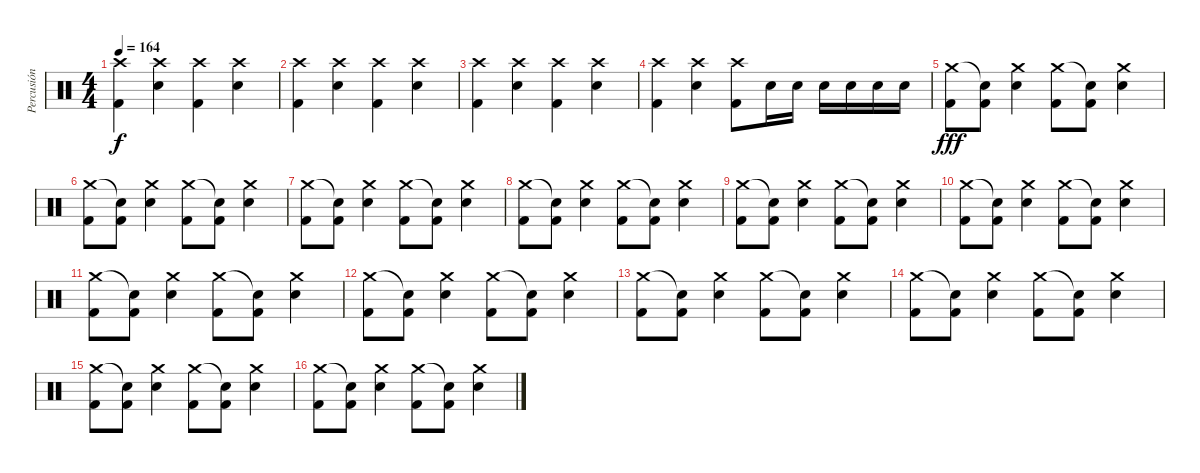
\track ("Percusión" "Percusión") {instrument percussion}
\staff {score}
\articulation defaults
\ts (4 4)
\tempo 164
\clef neutral
\ks c
("Crash high (hit)" "Kick (hit) 2").4{dy f} ("Crash high (hit)" "Snare (hit) 2").4 ("Crash high (hit)" "Kick (hit) 2").4 ("Crash high (hit)" "Snare (hit) 2").4 |
("Crash high (hit)" "Kick (hit) 2").4 ("Crash high (hit)" "Snare (hit) 2").4 ("Crash high (hit)" "Kick (hit) 2").4 ("Crash high (hit)" "Snare (hit) 2").4 |
("Crash high (hit)" "Kick (hit) 2").4 ("Crash high (hit)" "Snare (hit) 2").4 ("Crash high (hit)" "Kick (hit) 2").4 ("Crash high (hit)" "Snare (hit) 2").4 |
("Crash high (hit)" "Kick (hit) 2").4 ("Crash high (hit)" "Snare (hit) 2").4 ("Crash high (hit)" "Kick (hit) 2").8 "Electric Snare (hit)".16 "Electric Snare (hit)".16 "Electric Snare (hit)".16 "Electric Snare (hit)".16 "Electric Snare (hit)".16 "Electric Snare (hit)".16 |
("Crash medium (hit)" "Kick (hit) 2").8{dy fff} ("Snare (hit)"{t} "Kick (hit) 2").8 ("Crash medium (hit)" "Snare (hit) 2").4 ("Crash medium (hit)" "Kick (hit) 2").8 ("Snare (hit)"{t} "Kick (hit) 2").8 ("Crash medium (hit)" "Snare (hit) 2").4 |
("Crash medium (hit)" "Kick (hit) 2").8 ("Snare (hit)"{t} "Kick (hit) 2").8 ("Crash medium (hit)" "Snare (hit) 2").4 ("Crash medium (hit)" "Kick (hit) 2").8 ("Snare (hit)"{t} "Kick (hit) 2").8 ("Crash medium (hit)" "Snare (hit) 2").4 |
("Crash medium (hit)" "Kick (hit) 2").8 ("Snare (hit)"{t} "Kick (hit) 2").8 ("Crash medium (hit)" "Snare (hit) 2").4 ("Crash medium (hit)" "Kick (hit) 2").8 ("Snare (hit)"{t} "Kick (hit) 2").8 ("Crash medium (hit)" "Snare (hit) 2").4 |
("Crash medium (hit)" "Kick (hit) 2").8 ("Snare (hit)"{t} "Kick (hit) 2").8 ("Crash medium (hit)" "Snare (hit) 2").4 ("Crash medium (hit)" "Kick (hit) 2").8 ("Snare (hit)"{t} "Kick (hit) 2").8 ("Crash medium (hit)" "Snare (hit) 2").4 |
("Crash medium (hit)" "Kick (hit) 2").8 ("Snare (hit)"{t} "Kick (hit) 2").8 ("Crash medium (hit)" "Snare (hit) 2").4 ("Crash medium (hit)" "Kick (hit) 2").8 ("Snare (hit)"{t} "Kick (hit) 2").8 ("Crash medium (hit)" "Snare (hit) 2").4 |
("Crash medium (hit)" "Kick (hit) 2").8 ("Snare (hit)"{t} "Kick (hit) 2").8 ("Crash medium (hit)" "Snare (hit) 2").4 ("Crash medium (hit)" "Kick (hit) 2").8 ("Snare (hit)"{t} "Kick (hit) 2").8 ("Crash medium (hit)" "Snare (hit) 2").4 |
("Crash medium (hit)" "Kick (hit) 2").8 ("Snare (hit)"{t} "Kick (hit) 2").8 ("Crash medium (hit)" "Snare (hit) 2").4 ("Crash medium (hit)" "Kick (hit) 2").8 ("Snare (hit)"{t} "Kick (hit) 2").8 ("Crash medium (hit)" "Snare (hit) 2").4 |
("Crash medium (hit)" "Kick (hit) 2").8 ("Snare (hit)"{t} "Kick (hit) 2").8 ("Crash medium (hit)" "Snare (hit) 2").4 ("Crash medium (hit)" "Kick (hit) 2").8 ("Snare (hit)"{t} "Kick (hit) 2").8 ("Crash medium (hit)" "Snare (hit) 2").4 |
("Crash medium (hit)" "Kick (hit) 2").8 ("Snare (hit)"{t} "Kick (hit) 2").8 ("Crash medium (hit)" "Snare (hit) 2").4 ("Crash medium (hit)" "Kick (hit) 2").8 ("Snare (hit)"{t} "Kick (hit) 2").8 ("Crash medium (hit)" "Snare (hit) 2").4 |
("Crash medium (hit)" "Kick (hit) 2").8 ("Snare (hit)"{t} "Kick (hit) 2").8 ("Crash medium (hit)" "Snare (hit) 2").4 ("Crash medium (hit)" "Kick (hit) 2").8 ("Snare (hit)"{t} "Kick (hit) 2").8 ("Crash medium (hit)" "Snare (hit) 2").4 |
("Crash medium (hit)" "Kick (hit) 2").8 ("Snare (hit)"{t} "Kick (hit) 2").8 ("Crash medium (hit)" "Snare (hit) 2").4 ("Crash medium (hit)" "Kick (hit) 2").8 ("Snare (hit)"{t} "Kick (hit) 2").8 ("Crash medium (hit)" "Snare (hit) 2").4 |
("Crash medium (hit)" "Kick (hit) 2").8 ("Snare (hit)"{t} "Kick (hit) 2").8 ("Crash medium (hit)" "Snare (hit) 2").4 ("Crash medium (hit)" "Kick (hit) 2").8 ("Snare (hit)"{t} "Kick (hit) 2").8 ("Crash medium (hit)" "Snare (hit) 2").4
